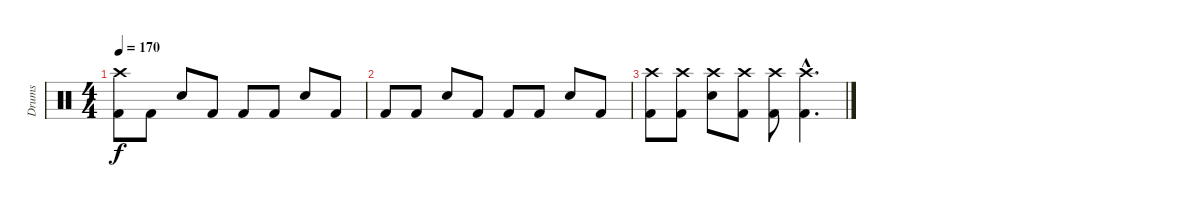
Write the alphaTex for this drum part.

\track ("Drums" "Drums") {instrument percussion}
\staff {score}
\articulation defaults
\ts (4 4)
\tempo 170
\clef neutral
\ks c
("Kick (hit) 2" "Crash high (hit)").8{dy f} "Kick (hit) 2".8 "Snare (hit) 2".8 "Kick (hit) 2".8 "Kick (hit) 2".8 "Kick (hit) 2".8 "Snare (hit) 2".8 "Kick (hit) 2".8 |
"Kick (hit) 2".8 "Kick (hit) 2".8 "Snare (hit) 2".8 "Kick (hit) 2".8 "Kick (hit) 2".8 "Kick (hit) 2".8 "Snare (hit) 2".8 "Kick (hit) 2".8 |
("Kick (hit) 2" "Crash high (hit)").8 ("Kick (hit) 2" "Crash high (hit)").8 ("Snare (hit) 2" "Crash high (hit)").8 ("Kick (hit) 2" "Crash high (hit)").8 ("Kick (hit) 2" "Crash high (hit)").8 ("Kick (hit) 2"{hac} "Crash high (hit)"{hac}).4{d}
